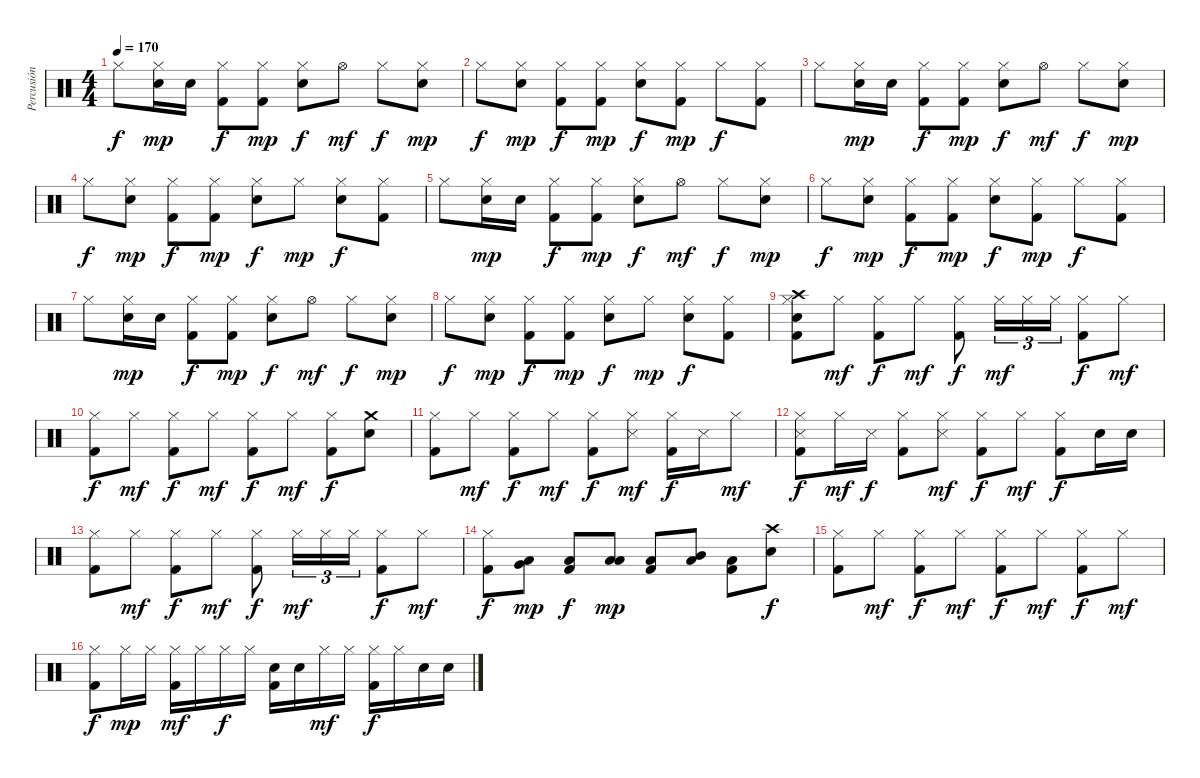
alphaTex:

\track ("Percusión" "Percusión") {instrument percussion}
\staff {score}
\articulation defaults
\ts (4 4)
\tempo 170
\clef neutral
\ks c "Hi-Hat (closed)".8{dy f}
("Hi-Hat (closed)" "Electric Snare (hit)").16{dy mp} "Electric Snare (hit)".16 ("Hi-Hat (closed)" "Kick (hit) 2").8{dy f} ("Hi-Hat (closed)" "Kick (hit) 2").8{dy mp} ("Hi-Hat (closed)" "Electric Snare (hit)").8{dy f} "Hi-Hat (open)".8{dy mf} "Hi-Hat (closed)".8{dy f} ("Hi-Hat (closed)" "Electric Snare (hit)").8{dy mp} |
"Hi-Hat (closed)".8{dy f} ("Hi-Hat (closed)" "Electric Snare (hit)").8{dy mp} ("Hi-Hat (closed)" "Kick (hit) 2").8{dy f} ("Hi-Hat (closed)" "Kick (hit) 2").8{dy mp} ("Hi-Hat (closed)" "Electric Snare (hit)").8{dy f} ("Hi-Hat (closed)" "Kick (hit) 2").8{dy mp} "Hi-Hat (closed)".8{dy f} ("Hi-Hat (closed)" "Kick (hit) 2").8 |
"Hi-Hat (closed)".8 ("Hi-Hat (closed)" "Electric Snare (hit)").16{dy mp} "Electric Snare (hit)".16 ("Hi-Hat (closed)" "Kick (hit) 2").8{dy f} ("Hi-Hat (closed)" "Kick (hit) 2").8{dy mp} ("Hi-Hat (closed)" "Electric Snare (hit)").8{dy f} "Hi-Hat (open)".8{dy mf} "Hi-Hat (closed)".8{dy f} ("Hi-Hat (closed)" "Electric Snare (hit)").8{dy mp} |
"Hi-Hat (closed)".8{dy f} ("Hi-Hat (closed)" "Electric Snare (hit)").8{dy mp} ("Hi-Hat (closed)" "Kick (hit) 2").8{dy f} ("Hi-Hat (closed)" "Kick (hit) 2").8{dy mp} ("Hi-Hat (closed)" "Electric Snare (hit)").8{dy f} "Hi-Hat (closed)".8{dy mp} ("Hi-Hat (closed)" "Electric Snare (hit)").8{dy f} ("Hi-Hat (closed)" "Kick (hit) 2").8 |
"Hi-Hat (closed)".8 ("Hi-Hat (closed)" "Electric Snare (hit)").16{dy mp} "Electric Snare (hit)".16 ("Hi-Hat (closed)" "Kick (hit) 2").8{dy f} ("Hi-Hat (closed)" "Kick (hit) 2").8{dy mp} ("Hi-Hat (closed)" "Electric Snare (hit)").8{dy f} "Hi-Hat (open)".8{dy mf} "Hi-Hat (closed)".8{dy f} ("Hi-Hat (closed)" "Electric Snare (hit)").8{dy mp} |
"Hi-Hat (closed)".8{dy f} ("Hi-Hat (closed)" "Electric Snare (hit)").8{dy mp} ("Hi-Hat (closed)" "Kick (hit) 2").8{dy f} ("Hi-Hat (closed)" "Kick (hit) 2").8{dy mp} ("Hi-Hat (closed)" "Electric Snare (hit)").8{dy f} ("Hi-Hat (closed)" "Kick (hit) 2").8{dy mp} "Hi-Hat (closed)".8{dy f} ("Hi-Hat (closed)" "Kick (hit) 2").8 |
"Hi-Hat (closed)".8 ("Hi-Hat (closed)" "Electric Snare (hit)").16{dy mp} "Electric Snare (hit)".16 ("Hi-Hat (closed)" "Kick (hit) 2").8{dy f} ("Hi-Hat (closed)" "Kick (hit) 2").8{dy mp} ("Hi-Hat (closed)" "Electric Snare (hit)").8{dy f} "Hi-Hat (open)".8{dy mf} "Hi-Hat (closed)".8{dy f} ("Hi-Hat (closed)" "Electric Snare (hit)").8{dy mp} |
"Hi-Hat (closed)".8{dy f} ("Hi-Hat (closed)" "Electric Snare (hit)").8{dy mp} ("Hi-Hat (closed)" "Kick (hit) 2").8{dy f} ("Hi-Hat (closed)" "Kick (hit) 2").8{dy mp} ("Hi-Hat (closed)" "Electric Snare (hit)").8{dy f} "Hi-Hat (closed)".8{dy mp} ("Hi-Hat (closed)" "Electric Snare (hit)").8{dy f} ("Hi-Hat (closed)" "Kick (hit) 2").8 |
("Crash high (hit)" "Hi-Hat (closed)" "Electric Snare (hit)" "Kick (hit) 2").8 "Hi-Hat (closed)".8{dy mf} ("Hi-Hat (closed)" "Kick (hit) 2").8{dy f} "Hi-Hat (closed)".8{dy mf} ("Hi-Hat (closed)" "Kick (hit) 2").8{dy f} "Hi-Hat (closed)".16{tu (3 2) dy mf} "Hi-Hat (closed)".16{tu (3 2)} "Hi-Hat (closed)".16{tu (3 2)} ("Hi-Hat (closed)" "Kick (hit) 2").8{dy f} "Hi-Hat (closed)".8{dy mf} |
("Hi-Hat (closed)" "Kick (hit) 2").8{dy f} "Hi-Hat (closed)".8{dy mf} ("Hi-Hat (closed)" "Kick (hit) 2").8{dy f} "Hi-Hat (closed)".8{dy mf} ("Hi-Hat (closed)" "Kick (hit) 2").8{dy f} "Hi-Hat (closed)".8{dy mf} ("Hi-Hat (closed)" "Kick (hit) 2").8{dy f} ("Crash medium (hit)" "Electric Snare (hit)").8 |
("Hi-Hat (closed)" "Kick (hit) 2").8 "Hi-Hat (closed)".8{dy mf} ("Hi-Hat (closed)" "Kick (hit) 2").8{dy f} "Hi-Hat (closed)".8{dy mf} ("Hi-Hat (closed)" "Kick (hit) 2").8{dy f} ("Hi-Hat (closed)" "Snare (side stick) 3").8{dy mf} ("Hi-Hat (closed)" "Kick (hit) 2").16{dy f} "Snare (side stick) 3".16 "Hi-Hat (closed)".8{dy mf} |
("Hi-Hat (closed)" "Kick (hit) 2" "Snare (side stick) 3").8{dy f} "Hi-Hat (closed)".16{dy mf} "Snare (side stick) 3".16{dy f} ("Hi-Hat (closed)" "Kick (hit) 2").8 ("Hi-Hat (closed)" "Snare (side stick) 3").8{dy mf} ("Hi-Hat (closed)" "Kick (hit) 2").8{dy f} "Hi-Hat (closed)".8{dy mf} ("Hi-Hat (closed)" "Kick (hit) 2").8{dy f} "Electric Snare (hit)".16 "Electric Snare (hit)".16 |
("Hi-Hat (closed)" "Kick (hit) 2").8 "Hi-Hat (closed)".8{dy mf} ("Hi-Hat (closed)" "Kick (hit) 2").8{dy f} "Hi-Hat (closed)".8{dy mf} ("Hi-Hat (closed)" "Kick (hit) 2").8{dy f} "Hi-Hat (closed)".16{tu (3 2) dy mf} "Hi-Hat (closed)".16{tu (3 2)} "Hi-Hat (closed)".16{tu (3 2)} ("Hi-Hat (closed)" "Kick (hit) 2").8{dy f} "Hi-Hat (closed)".8{dy mf} |
("Hi-Hat (closed)" "Kick (hit) 2").8{dy f} ("Low Floor Tom (hit)" "Very Low Tom (hit)").8{dy mp} ("Low Floor Tom (hit)" "Kick (hit) 2").8{dy f} ("Low Floor Tom (hit)" "Low Tom (hit)").8{dy mp} ("Low Floor Tom (hit)" "Kick (hit) 2").8 ("Low Floor Tom (hit)" "Mid Tom (hit)").8 ("Low Floor Tom (hit)" "Kick (hit) 2").8 ("Crash high (hit)" "Electric Snare (hit)").8{dy f} |
("Hi-Hat (closed)" "Kick (hit) 2").8 "Hi-Hat (closed)".8{dy mf} ("Hi-Hat (closed)" "Kick (hit) 2").8{dy f} "Hi-Hat (closed)".8{dy mf} ("Hi-Hat (closed)" "Kick (hit) 2").8{dy f} "Hi-Hat (closed)".8{dy mf} ("Hi-Hat (closed)" "Kick (hit) 2").8{dy f} "Hi-Hat (closed)".8{dy mf} |
("Hi-Hat (closed)" "Kick (hit) 2").8{dy f} "Hi-Hat (closed)".16{dy mp} "Hi-Hat (closed)".16 ("Hi-Hat (closed)" "Kick (hit) 2").16{dy mf} "Hi-Hat (closed)".16 "Hi-Hat (closed)".16{dy f} "Hi-Hat (closed)".16 ("Electric Snare (hit)" "Kick (hit) 2").16 "Electric Snare (hit)".16 "Hi-Hat (closed)".16{dy mf} "Hi-Hat (closed)".16 ("Hi-Hat (closed)" "Kick (hit) 2").16{dy f} "Hi-Hat (closed)".16 "Electric Snare (hit)".16 "Electric Snare (hit)".16
